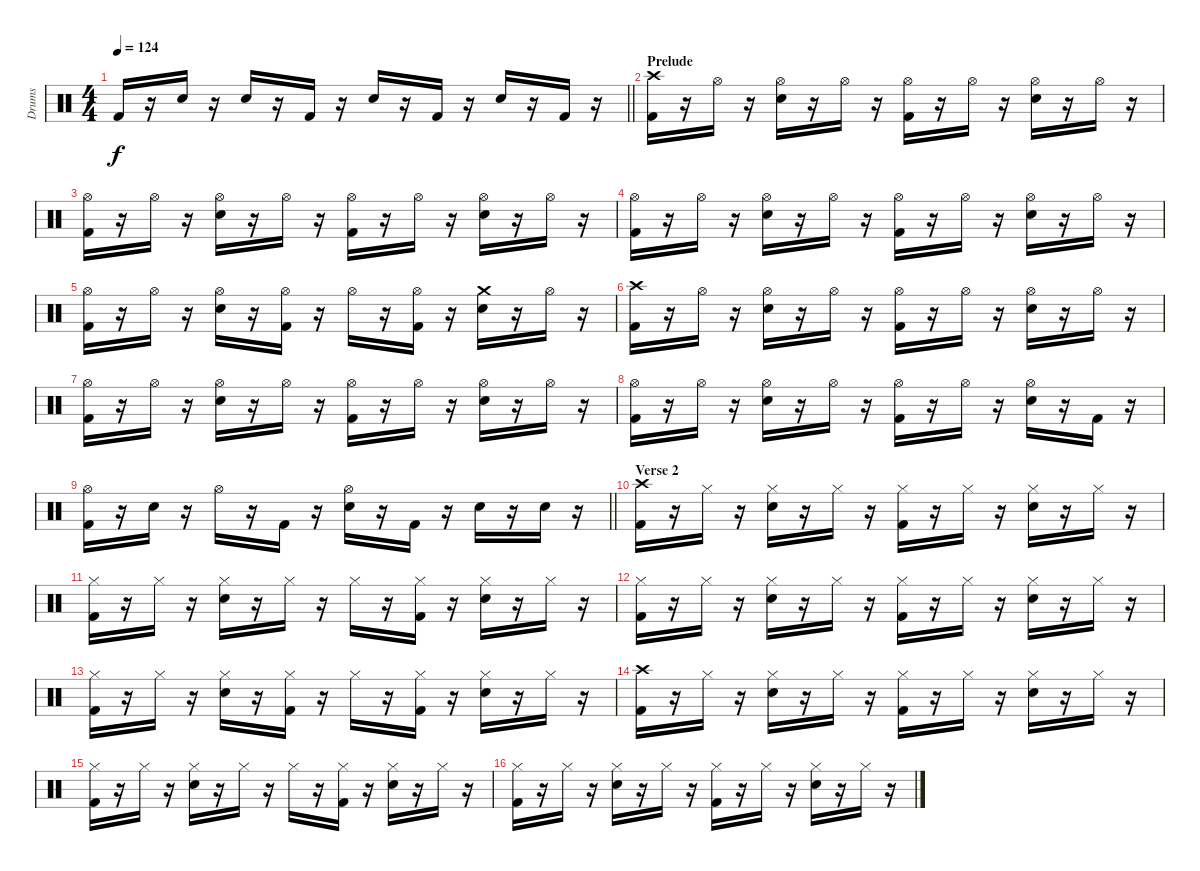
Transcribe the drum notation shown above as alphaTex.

\track ("Drums" "Drums") {instrument percussion}
\staff {score}
\articulation defaults
\ts (4 4)
\tempo 124
\clef neutral
\barLineRight lightlight
\ks c "Kick (hit) 2".16{dy f}
r.16 "Snare (hit) 2".16 r.16 "Snare (hit) 2".16 r.16 "Kick (hit) 2".16 r.16 "Snare (hit) 2".16 r.16 "Kick (hit) 2".16 r.16 "Snare (hit) 2".16 r.16 "Kick (hit) 2".16 r.16 |
\section ("" "Prelude")
("Crash high (hit)" "Kick (hit) 2").16 r.16 "Hi-Hat (open)".16 r.16 ("Hi-Hat (open)" "Snare (hit) 2").16 r.16 "Hi-Hat (open)".16 r.16 ("Hi-Hat (open)" "Kick (hit) 2").16 r.16 "Hi-Hat (open)".16 r.16 ("Hi-Hat (open)" "Snare (hit) 2").16 r.16 "Hi-Hat (open)".16 r.16 |
("Hi-Hat (open)" "Kick (hit) 2").16 r.16 "Hi-Hat (open)".16 r.16 ("Hi-Hat (open)" "Snare (hit) 2").16 r.16 "Hi-Hat (open)".16 r.16 ("Hi-Hat (open)" "Kick (hit) 2").16 r.16 "Hi-Hat (open)".16 r.16 ("Hi-Hat (open)" "Snare (hit) 2").16 r.16 "Hi-Hat (open)".16 r.16 |
("Hi-Hat (open)" "Kick (hit) 2").16 r.16 "Hi-Hat (open)".16 r.16 ("Hi-Hat (open)" "Snare (hit) 2").16 r.16 "Hi-Hat (open)".16 r.16 ("Hi-Hat (open)" "Kick (hit) 2").16 r.16 "Hi-Hat (open)".16 r.16 ("Hi-Hat (open)" "Snare (hit) 2").16 r.16 "Hi-Hat (open)".16 r.16 |
("Hi-Hat (open)" "Kick (hit) 2").16 r.16 "Hi-Hat (open)".16 r.16 ("Hi-Hat (open)" "Snare (hit) 2").16 r.16 ("Hi-Hat (open)" "Kick (hit) 2").16 r.16 "Hi-Hat (open)".16 r.16 ("Hi-Hat (open)" "Kick (hit) 2").16 r.16 ("Crash medium (hit)" "Snare (hit) 2").16 r.16 "Hi-Hat (open)".16 r.16 |
("Crash high (hit)" "Kick (hit) 2").16 r.16 "Hi-Hat (open)".16 r.16 ("Hi-Hat (open)" "Snare (hit) 2").16 r.16 "Hi-Hat (open)".16 r.16 ("Hi-Hat (open)" "Kick (hit) 2").16 r.16 "Hi-Hat (open)".16 r.16 ("Hi-Hat (open)" "Snare (hit) 2").16 r.16 "Hi-Hat (open)".16 r.16 |
("Hi-Hat (open)" "Kick (hit) 2").16 r.16 "Hi-Hat (open)".16 r.16 ("Hi-Hat (open)" "Snare (hit) 2").16 r.16 "Hi-Hat (open)".16 r.16 ("Hi-Hat (open)" "Kick (hit) 2").16 r.16 "Hi-Hat (open)".16 r.16 ("Hi-Hat (open)" "Snare (hit) 2").16 r.16 "Hi-Hat (open)".16 r.16 |
("Hi-Hat (open)" "Kick (hit) 2").16 r.16 "Hi-Hat (open)".16 r.16 ("Hi-Hat (open)" "Snare (hit) 2").16 r.16 "Hi-Hat (open)".16 r.16 ("Hi-Hat (open)" "Kick (hit) 2").16 r.16 "Hi-Hat (open)".16 r.16 ("Hi-Hat (open)" "Snare (hit) 2").16 r.16 "Kick (hit) 2".16 r.16 |
\barLineRight lightlight
("Hi-Hat (open)" "Kick (hit) 2").16 r.16 "Snare (hit) 2".16 r.16 "Hi-Hat (open)".16 r.16 "Kick (hit) 2".16 r.16 ("Hi-Hat (open)" "Snare (hit) 2").16 r.16 "Kick (hit) 2".16 r.16 "Snare (hit) 2".16 r.16 "Snare (hit) 2".16 r.16 |
\section ("" "Verse 2")
("Crash high (hit)" "Kick (hit) 2").16 r.16 "Hi-Hat (closed)".16 r.16 ("Hi-Hat (closed)" "Snare (hit) 2").16 r.16 "Hi-Hat (closed)".16 r.16 ("Hi-Hat (closed)" "Kick (hit) 2").16 r.16 "Hi-Hat (closed)".16 r.16 ("Hi-Hat (closed)" "Snare (hit) 2").16 r.16 "Hi-Hat (closed)".16 r.16 |
("Hi-Hat (closed)" "Kick (hit) 2").16 r.16 "Hi-Hat (closed)".16 r.16 ("Hi-Hat (closed)" "Snare (hit) 2").16 r.16 "Hi-Hat (closed)".16 r.16 "Hi-Hat (closed)".16 r.16 ("Hi-Hat (closed)" "Kick (hit) 2").16 r.16 ("Hi-Hat (closed)" "Snare (hit) 2").16 r.16 "Hi-Hat (closed)".16 r.16 |
("Hi-Hat (closed)" "Kick (hit) 2").16 r.16 "Hi-Hat (closed)".16 r.16 ("Hi-Hat (closed)" "Snare (hit) 2").16 r.16 "Hi-Hat (closed)".16 r.16 ("Hi-Hat (closed)" "Kick (hit) 2").16 r.16 "Hi-Hat (closed)".16 r.16 ("Hi-Hat (closed)" "Snare (hit) 2").16 r.16 "Hi-Hat (closed)".16 r.16 |
("Hi-Hat (closed)" "Kick (hit) 2").16 r.16 "Hi-Hat (closed)".16 r.16 ("Hi-Hat (closed)" "Snare (hit) 2").16 r.16 ("Hi-Hat (closed)" "Kick (hit) 2").16 r.16 "Hi-Hat (closed)".16 r.16 ("Hi-Hat (closed)" "Kick (hit) 2").16 r.16 ("Hi-Hat (closed)" "Snare (hit) 2").16 r.16 "Hi-Hat (closed)".16 r.16 |
("Crash high (hit)" "Kick (hit) 2").16 r.16 "Hi-Hat (closed)".16 r.16 ("Hi-Hat (closed)" "Snare (hit) 2").16 r.16 "Hi-Hat (closed)".16 r.16 ("Hi-Hat (closed)" "Kick (hit) 2").16 r.16 "Hi-Hat (closed)".16 r.16 ("Hi-Hat (closed)" "Snare (hit) 2").16 r.16 "Hi-Hat (closed)".16 r.16 |
("Hi-Hat (closed)" "Kick (hit) 2").16 r.16 "Hi-Hat (closed)".16 r.16 ("Hi-Hat (closed)" "Snare (hit) 2").16 r.16 "Hi-Hat (closed)".16 r.16 "Hi-Hat (closed)".16 r.16 ("Hi-Hat (closed)" "Kick (hit) 2").16 r.16 ("Hi-Hat (closed)" "Snare (hit) 2").16 r.16 "Hi-Hat (closed)".16 r.16 |
("Hi-Hat (closed)" "Kick (hit) 2").16 r.16 "Hi-Hat (closed)".16 r.16 ("Hi-Hat (closed)" "Snare (hit) 2").16 r.16 "Hi-Hat (closed)".16 r.16 ("Hi-Hat (closed)" "Kick (hit) 2").16 r.16 "Hi-Hat (closed)".16 r.16 ("Hi-Hat (closed)" "Snare (hit) 2").16 r.16 "Hi-Hat (closed)".16 r.16
